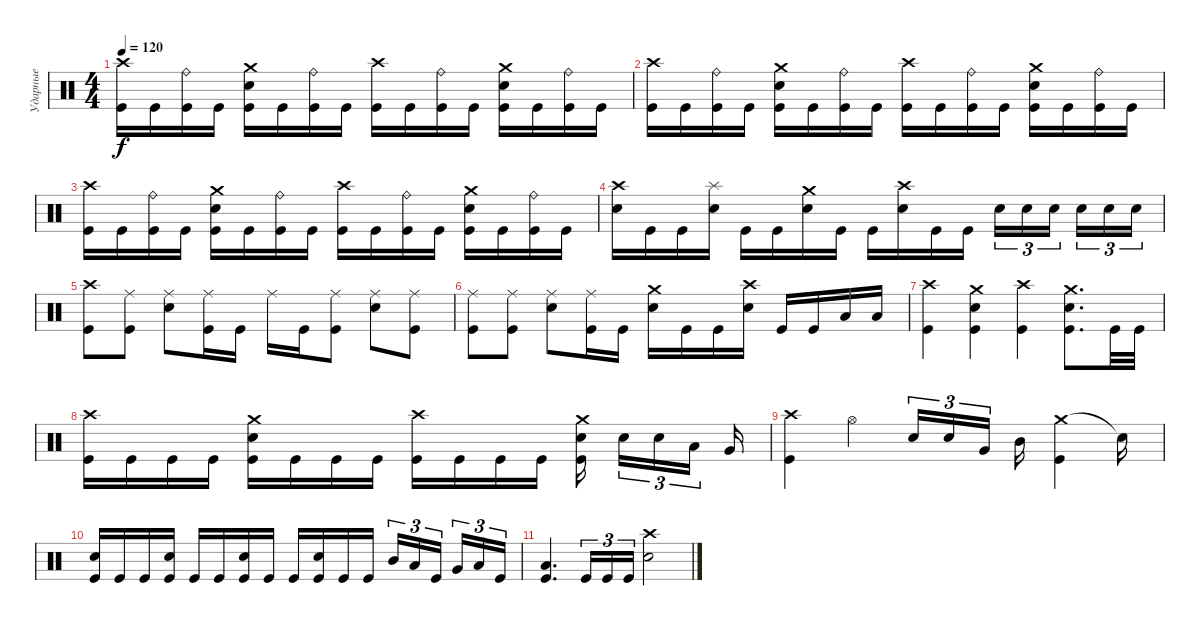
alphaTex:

\track ("Ударные" "Ударные") {instrument percussion}
\staff {score}
\articulation defaults
\ts (4 4)
\tempo 120
\clef neutral
\ks c
("Kick (hit)" "Crash high (hit)").16{dy f} "Kick (hit)".16 ("Kick (hit)" "Ride (bell)").16 "Kick (hit)".16 ("Kick (hit)" "Snare (hit) 2" "Crash medium (hit)").16 "Kick (hit)".16 ("Kick (hit)" "Ride (bell)").16 "Kick (hit)".16 ("Kick (hit)" "Crash high (hit)").16 "Kick (hit)".16 ("Kick (hit)" "Ride (bell)").16 "Kick (hit)".16 ("Kick (hit)" "Snare (hit) 2" "Crash medium (hit)").16 "Kick (hit)".16 ("Kick (hit)" "Ride (bell)").16 "Kick (hit)".16 |
("Kick (hit)" "Crash high (hit)").16 "Kick (hit)".16 ("Kick (hit)" "Ride (bell)").16 "Kick (hit)".16 ("Kick (hit)" "Snare (hit) 2" "Crash medium (hit)").16 "Kick (hit)".16 ("Kick (hit)" "Ride (bell)").16 "Kick (hit)".16 ("Kick (hit)" "Crash high (hit)").16 "Kick (hit)".16 ("Kick (hit)" "Ride (bell)").16 "Kick (hit)".16 ("Kick (hit)" "Snare (hit) 2" "Crash medium (hit)").16 "Kick (hit)".16 ("Kick (hit)" "Ride (bell)").16 "Kick (hit)".16 |
("Kick (hit)" "Crash high (hit)").16 "Kick (hit)".16 ("Kick (hit)" "Ride (bell)").16 "Kick (hit)".16 ("Kick (hit)" "Snare (hit) 2" "Crash medium (hit)").16 "Kick (hit)".16 ("Kick (hit)" "Ride (bell)").16 "Kick (hit)".16 ("Kick (hit)" "Crash high (hit)").16 "Kick (hit)".16 ("Kick (hit)" "Ride (bell)").16 "Kick (hit)".16 ("Kick (hit)" "Snare (hit) 2" "Crash medium (hit)").16 "Kick (hit)".16 ("Kick (hit)" "Ride (bell)").16 "Kick (hit)".16 |
("Snare (hit) 2" "Crash high (hit)").16 "Kick (hit)".16 "Kick (hit)".16 ("Snare (hit) 2" "Splash (hit)").16 "Kick (hit)".16 "Kick (hit)".16 ("Snare (hit) 2" "Crash medium (hit)").16 "Kick (hit)".16 "Kick (hit)".16 ("Snare (hit) 2" "Crash high (hit)").16 "Kick (hit)".16 "Kick (hit)".16 "Snare (hit) 2".16{tu (3 2)} "Snare (hit) 2".16{tu (3 2)} "Snare (hit) 2".16{tu (3 2)} "Snare (hit) 2".16{tu (3 2)} "Snare (hit) 2".16{tu (3 2)} "Snare (hit) 2".16{tu (3 2)} |
("Kick (hit)" "Crash high (hit)").8 ("Kick (hit)" "Ride (middle)").8 ("Snare (hit) 2" "Ride (middle)").8 ("Kick (hit)" "Ride (middle)").16 "Kick (hit)".16 "Ride (middle)".16 "Kick (hit)".16 ("Kick (hit)" "Ride (middle)").8 ("Snare (hit) 2" "Ride (middle)").8 ("Kick (hit)" "Ride (middle)").8 |
("Kick (hit)" "Ride (middle)").8 ("Kick (hit)" "Ride (middle)").8 ("Snare (hit) 2" "Ride (middle)").8 ("Kick (hit)" "Ride (middle)").16 "Kick (hit)".16 ("Crash medium (hit)" "Snare (hit) 2").16 "Kick (hit)".16 "Kick (hit)".16 ("Crash high (hit)" "Snare (hit) 2").16 "Kick (hit)".16 "Kick (hit)".16 "Low Tom (hit)".16 "Low Tom (hit)".16 |
("Kick (hit)" "Crash high (hit)").4 ("Kick (hit)" "Snare (hit) 2" "Crash medium (hit)").4 ("Kick (hit)" "Crash high (hit)").4 ("Kick (hit)" "Snare (hit) 2" "Crash medium (hit)").8{d} "Kick (hit)".32 "Kick (hit)".32 |
("Kick (hit)" "Crash high (hit)").16 "Kick (hit)".16 "Kick (hit)".16 "Kick (hit)".16 ("Kick (hit)" "Snare (hit) 2" "Crash medium (hit)").16 "Kick (hit)".16 "Kick (hit)".16 "Kick (hit)".16 ("Kick (hit)" "Crash high (hit)").16 "Kick (hit)".16 "Kick (hit)".16 "Kick (hit)".16 ("Kick (hit)" "Snare (hit) 2" "Crash medium (hit)").16 "Snare (hit) 2".16{tu (3 2)} "Snare (hit) 2".16{tu (3 2)} "Low Tom (hit)".16{tu (3 2)} "Very Low Tom (hit)".16 |
("Kick (hit)" "Crash high (hit)").4 "Hi-Hat (open)".4 "Snare (hit) 2".16{tu (3 2)} "Snare (hit) 2".16{tu (3 2)} "Very Low Tom (hit)".16{tu (3 2)} "Mid Tom (hit)".16 ("Crash medium (hit)" "Kick (hit)").4 "Snare (hit)"{t}.16 |
("Kick (hit)" "Snare (hit) 2").16 "Kick (hit)".16 "Kick (hit)".16 ("Kick (hit)" "Snare (hit) 2").16 "Kick (hit)".16 "Kick (hit)".16 ("Kick (hit)" "Snare (hit) 2").16 "Kick (hit)".16 "Kick (hit)".16 ("Kick (hit)" "Snare (hit) 2").16 "Kick (hit)".16 "Kick (hit)".16 "Mid Tom (hit)".16{tu (3 2)} "Low Tom (hit)".16{tu (3 2)} "Kick (hit)".16{tu (3 2)} "Very Low Tom (hit)".16{tu (3 2)} "Low Floor Tom (hit)".16{tu (3 2)} "Kick (hit)".16{tu (3 2)} |
("Kick (hit)" "Low Floor Tom (hit)").4{d} "Kick (hit)".16{tu (3 2)} "Kick (hit)".16{tu (3 2)} "Kick (hit)".16{tu (3 2)} ("Snare (hit) 2" "Crash high (hit)").2
